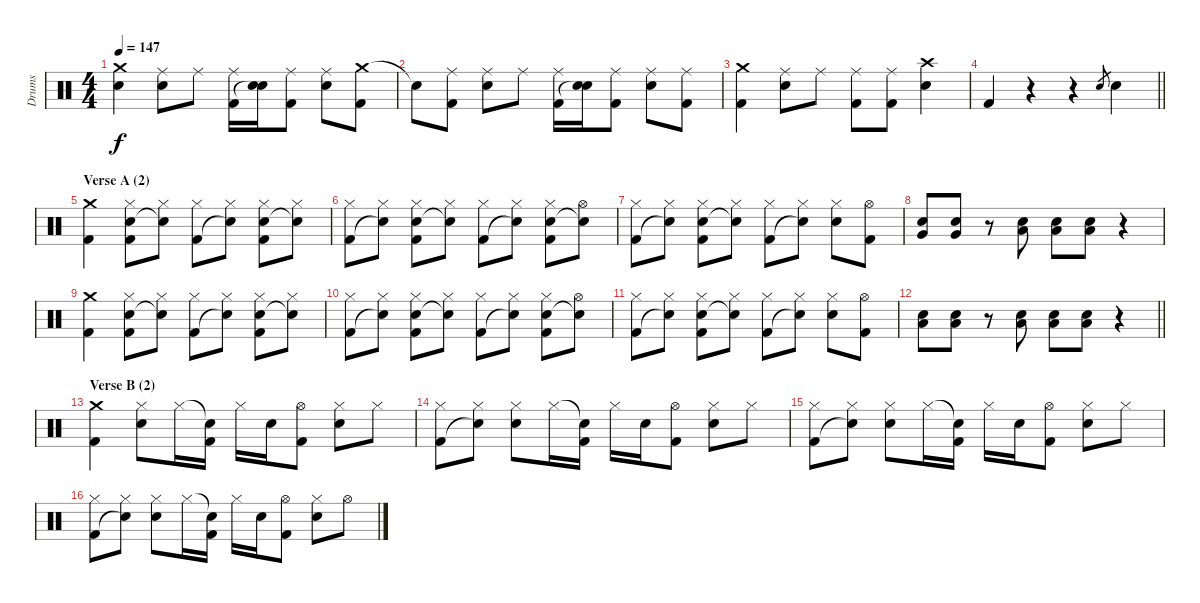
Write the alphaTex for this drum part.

\track ("Drums" "Drums") {instrument percussion}
\staff {score}
\articulation defaults
\ts (4 4)
\tempo 147
\clef neutral
\ks aminor
("Crash medium (hit)" "Hand Clap (hit)").4{dy f} ("Ride (middle)" "Electric Snare (hit)").8 "Ride (middle)".8 ("Ride (middle)" "Kick (hit) 2").16 ("Electric Snare (hit)" "Snare (hit)"{t}).16 ("Ride (middle)" "Kick (hit) 2").8 ("Ride (middle)" "Electric Snare (hit)").8 ("Crash medium (hit)" "Kick (hit) 2").8 |
"Snare (hit)"{t}.8 ("Ride (middle)" "Kick (hit) 2").8 ("Ride (middle)" "Electric Snare (hit)").8 "Ride (middle)".8 ("Ride (middle)" "Kick (hit) 2").16 ("Electric Snare (hit)" "Snare (hit)"{t}).16 ("Ride (middle)" "Kick (hit) 2").8 ("Ride (middle)" "Electric Snare (hit)").8 ("Ride (middle)" "Kick (hit) 2").8 |
("Crash medium (hit)" "Kick (hit) 2").4 ("Ride (middle)" "Electric Snare (hit)").8 "Ride (middle)".8 ("Ride (middle)" "Kick (hit) 2").8 ("Ride (middle)" "Kick (hit) 2").8 ("Crash high (hit)" "Electric Snare (hit)").4 |
\barLineRight lightlight "Kick (hit) 2".4
r.4 r.4 "Electric Snare (hit)".8{gr} "Electric Snare (hit)".4 |
\section ("" "Verse A (2)")
("Crash medium (hit)" "Kick (hit) 2").4 ("Hi-Hat (closed)" "Electric Snare (hit)" "Kick (hit) 2").8 ("Hi-Hat (closed)" "Snare (hit)"{t}).8 ("Hi-Hat (closed)" "Kick (hit) 2").8 ("Hi-Hat (closed)" "Snare (hit)"{t}).8 ("Hi-Hat (closed)" "Electric Snare (hit)" "Kick (hit) 2").8 ("Hi-Hat (closed)" "Snare (hit)"{t}).8 |
("Hi-Hat (closed)" "Kick (hit) 2").8 ("Hi-Hat (closed)" "Snare (hit)"{t}).8 ("Hi-Hat (closed)" "Electric Snare (hit)" "Kick (hit) 2").8 ("Hi-Hat (closed)" "Snare (hit)"{t}).8 ("Hi-Hat (closed)" "Kick (hit) 2").8 ("Hi-Hat (closed)" "Snare (hit)"{t}).8 ("Hi-Hat (closed)" "Electric Snare (hit)" "Kick (hit) 2").8 ("Hi-Hat (open)" "Snare (hit)"{t}).8 |
("Hi-Hat (closed)" "Kick (hit) 2").8 ("Hi-Hat (closed)" "Snare (hit)"{t}).8 ("Hi-Hat (closed)" "Electric Snare (hit)" "Kick (hit) 2").8 ("Hi-Hat (closed)" "Snare (hit)"{t}).8 ("Hi-Hat (closed)" "Kick (hit) 2").8 ("Hi-Hat (closed)" "Snare (hit)"{t}).8 ("Hi-Hat (closed)" "Electric Snare (hit)").8 ("Hi-Hat (open)" "Kick (hit) 2").8 |
("Electric Snare (hit)" "Very Low Tom (hit)").8 ("Electric Snare (hit)" "Very Low Tom (hit)").8 r.8 ("Electric Snare (hit)" "Low Floor Tom (hit)").8 ("Electric Snare (hit)" "Low Floor Tom (hit)").8 ("Electric Snare (hit)" "Low Floor Tom (hit)").8 r.4 |
("Crash medium (hit)" "Kick (hit) 2").4 ("Hi-Hat (closed)" "Electric Snare (hit)" "Kick (hit) 2").8 ("Hi-Hat (closed)" "Snare (hit)"{t}).8 ("Hi-Hat (closed)" "Kick (hit) 2").8 ("Hi-Hat (closed)" "Snare (hit)"{t}).8 ("Hi-Hat (closed)" "Electric Snare (hit)" "Kick (hit) 2").8 ("Hi-Hat (closed)" "Snare (hit)"{t}).8 |
("Hi-Hat (closed)" "Kick (hit) 2").8 ("Hi-Hat (closed)" "Snare (hit)"{t}).8 ("Hi-Hat (closed)" "Electric Snare (hit)" "Kick (hit) 2").8 ("Hi-Hat (closed)" "Snare (hit)"{t}).8 ("Hi-Hat (closed)" "Kick (hit) 2").8 ("Hi-Hat (closed)" "Snare (hit)"{t}).8 ("Hi-Hat (closed)" "Electric Snare (hit)" "Kick (hit) 2").8 ("Hi-Hat (open)" "Snare (hit)"{t}).8 |
("Hi-Hat (closed)" "Kick (hit) 2").8 ("Hi-Hat (closed)" "Snare (hit)"{t}).8 ("Hi-Hat (closed)" "Electric Snare (hit)" "Kick (hit) 2").8 ("Hi-Hat (closed)" "Snare (hit)"{t}).8 ("Hi-Hat (closed)" "Kick (hit) 2").8 ("Hi-Hat (closed)" "Snare (hit)"{t}).8 ("Hi-Hat (closed)" "Electric Snare (hit)").8 ("Hi-Hat (open)" "Kick (hit) 2").8 |
\barLineRight lightlight
("Electric Snare (hit)" "Low Floor Tom (hit)").8 ("Electric Snare (hit)" "Low Floor Tom (hit)").8 r.8 ("Electric Snare (hit)" "Low Floor Tom (hit)").8 ("Electric Snare (hit)" "Low Floor Tom (hit)").8 ("Electric Snare (hit)" "Low Floor Tom (hit)").8 r.4 |
\section ("" "Verse B (2)")
("Crash medium (hit)" "Kick (hit) 2").4 ("Hi-Hat (closed)" "Electric Snare (hit)").8 "Hi-Hat (closed)".16 ("Snare (hit)"{t} "Kick (hit) 2").16 "Hi-Hat (closed)".16 "Electric Snare (hit)".16 ("Hi-Hat (open)" "Kick (hit) 2").8 ("Hi-Hat (closed)" "Electric Snare (hit)").8 "Hi-Hat (closed)".8 |
("Hi-Hat (closed)" "Kick (hit) 2").8 ("Hi-Hat (closed)" "Snare (hit)"{t}).8 ("Hi-Hat (closed)" "Electric Snare (hit)").8 "Hi-Hat (closed)".16 ("Snare (hit)"{t} "Kick (hit) 2").16 "Hi-Hat (closed)".16 "Electric Snare (hit)".16 ("Hi-Hat (open)" "Kick (hit) 2").8 ("Hi-Hat (closed)" "Electric Snare (hit)").8 "Hi-Hat (closed)".8 |
("Hi-Hat (closed)" "Kick (hit) 2").8 ("Hi-Hat (closed)" "Snare (hit)"{t}).8 ("Hi-Hat (closed)" "Electric Snare (hit)").8 "Hi-Hat (closed)".16 ("Snare (hit)"{t} "Kick (hit) 2").16 "Hi-Hat (closed)".16 "Electric Snare (hit)".16 ("Hi-Hat (open)" "Kick (hit) 2").8 ("Hi-Hat (closed)" "Electric Snare (hit)").8 "Hi-Hat (closed)".8 |
("Hi-Hat (closed)" "Kick (hit) 2").8 ("Hi-Hat (closed)" "Snare (hit)"{t}).8 ("Hi-Hat (closed)" "Electric Snare (hit)").8 "Hi-Hat (closed)".16 ("Snare (hit)"{t} "Kick (hit) 2").16 "Hi-Hat (closed)".16 "Electric Snare (hit)".16 ("Hi-Hat (open)" "Kick (hit) 2").8 ("Hi-Hat (closed)" "Electric Snare (hit)").8 "Hi-Hat (open)".8
